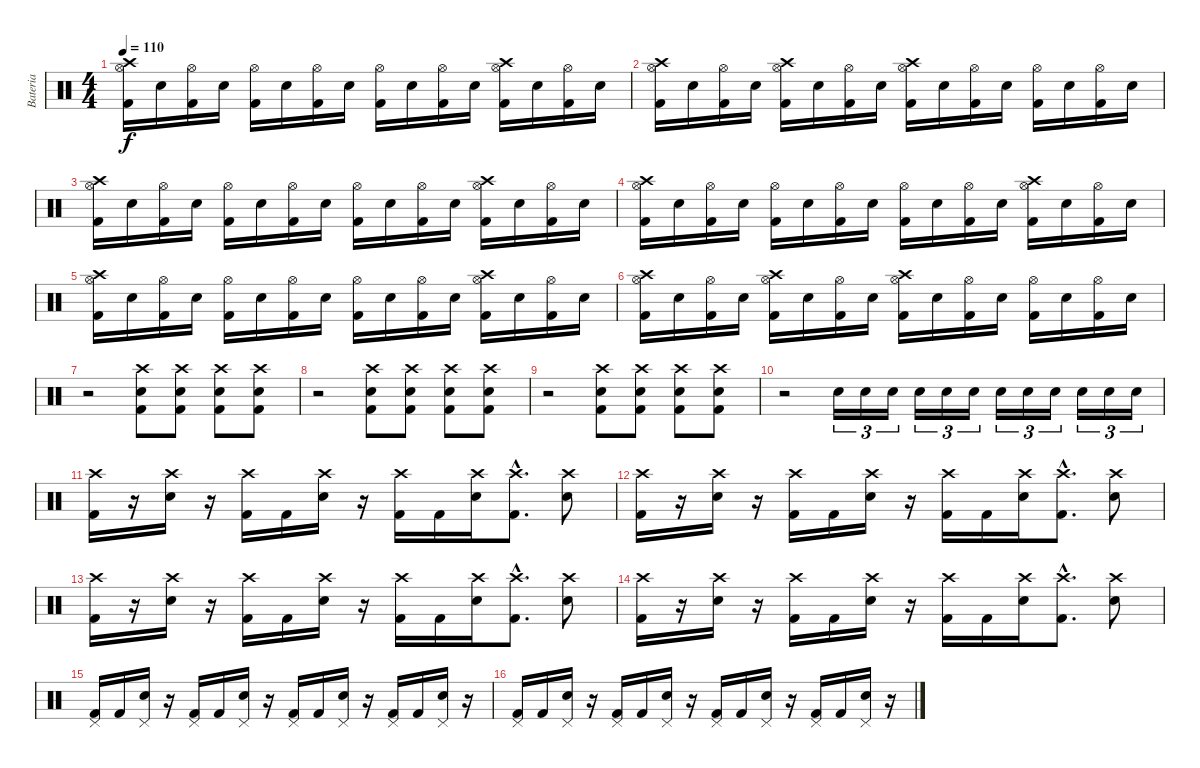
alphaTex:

\track ("Bateria" "Bateria") {instrument percussion}
\staff {score}
\articulation defaults
\ts (4 4)
\tempo 110
\clef neutral
\ks c
("Crash high (hit)" "Hi-Hat (open)" "Kick (hit) 2").16{dy f} "Electric Snare (hit)".16 ("Hi-Hat (open)" "Kick (hit) 2").16 "Electric Snare (hit)".16 ("Hi-Hat (open)" "Kick (hit) 2").16 "Electric Snare (hit)".16 ("Hi-Hat (open)" "Kick (hit) 2").16 "Electric Snare (hit)".16 ("Hi-Hat (open)" "Kick (hit) 2").16 "Electric Snare (hit)".16 ("Hi-Hat (open)" "Kick (hit) 2").16 "Electric Snare (hit)".16 ("Crash high (hit)" "Hi-Hat (open)" "Kick (hit) 2").16 "Electric Snare (hit)".16 ("Hi-Hat (open)" "Kick (hit) 2").16 "Electric Snare (hit)".16 |
("Crash high (hit)" "Hi-Hat (open)" "Kick (hit) 2").16 "Electric Snare (hit)".16 ("Hi-Hat (open)" "Kick (hit) 2").16 "Electric Snare (hit)".16 ("Crash high (hit)" "Hi-Hat (open)" "Kick (hit) 2").16 "Electric Snare (hit)".16 ("Hi-Hat (open)" "Kick (hit) 2").16 "Electric Snare (hit)".16 ("Crash high (hit)" "Hi-Hat (open)" "Kick (hit) 2").16 "Electric Snare (hit)".16 ("Hi-Hat (open)" "Kick (hit) 2").16 "Electric Snare (hit)".16 ("Hi-Hat (open)" "Kick (hit) 2").16 "Electric Snare (hit)".16 ("Hi-Hat (open)" "Kick (hit) 2").16 "Electric Snare (hit)".16 |
("Crash high (hit)" "Hi-Hat (open)" "Kick (hit) 2").16 "Electric Snare (hit)".16 ("Hi-Hat (open)" "Kick (hit) 2").16 "Electric Snare (hit)".16 ("Hi-Hat (open)" "Kick (hit) 2").16 "Electric Snare (hit)".16 ("Hi-Hat (open)" "Kick (hit) 2").16 "Electric Snare (hit)".16 ("Hi-Hat (open)" "Kick (hit) 2").16 "Electric Snare (hit)".16 ("Hi-Hat (open)" "Kick (hit) 2").16 "Electric Snare (hit)".16 ("Crash high (hit)" "Hi-Hat (open)" "Kick (hit) 2").16 "Electric Snare (hit)".16 ("Hi-Hat (open)" "Kick (hit) 2").16 "Electric Snare (hit)".16 |
("Crash high (hit)" "Hi-Hat (open)" "Kick (hit) 2").16 "Electric Snare (hit)".16 ("Hi-Hat (open)" "Kick (hit) 2").16 "Electric Snare (hit)".16 ("Hi-Hat (open)" "Kick (hit) 2").16 "Electric Snare (hit)".16 ("Hi-Hat (open)" "Kick (hit) 2").16 "Electric Snare (hit)".16 ("Hi-Hat (open)" "Kick (hit) 2").16 "Electric Snare (hit)".16 ("Hi-Hat (open)" "Kick (hit) 2").16 "Electric Snare (hit)".16 ("Crash high (hit)" "Hi-Hat (open)" "Kick (hit) 2").16 "Electric Snare (hit)".16 ("Hi-Hat (open)" "Kick (hit) 2").16 "Electric Snare (hit)".16 |
("Crash high (hit)" "Hi-Hat (open)" "Kick (hit) 2").16 "Electric Snare (hit)".16 ("Hi-Hat (open)" "Kick (hit) 2").16 "Electric Snare (hit)".16 ("Hi-Hat (open)" "Kick (hit) 2").16 "Electric Snare (hit)".16 ("Hi-Hat (open)" "Kick (hit) 2").16 "Electric Snare (hit)".16 ("Hi-Hat (open)" "Kick (hit) 2").16 "Electric Snare (hit)".16 ("Hi-Hat (open)" "Kick (hit) 2").16 "Electric Snare (hit)".16 ("Crash high (hit)" "Hi-Hat (open)" "Kick (hit) 2").16 "Electric Snare (hit)".16 ("Hi-Hat (open)" "Kick (hit) 2").16 "Electric Snare (hit)".16 |
("Crash high (hit)" "Hi-Hat (open)" "Kick (hit) 2").16 "Electric Snare (hit)".16 ("Hi-Hat (open)" "Kick (hit) 2").16 "Electric Snare (hit)".16 ("Crash high (hit)" "Hi-Hat (open)" "Kick (hit) 2").16 "Electric Snare (hit)".16 ("Hi-Hat (open)" "Kick (hit) 2").16 "Electric Snare (hit)".16 ("Crash high (hit)" "Hi-Hat (open)" "Kick (hit) 2").16 "Electric Snare (hit)".16 ("Hi-Hat (open)" "Kick (hit) 2").16 "Electric Snare (hit)".16 ("Hi-Hat (open)" "Kick (hit) 2").16 "Electric Snare (hit)".16 ("Hi-Hat (open)" "Kick (hit) 2").16 "Electric Snare (hit)".16 |
r.2 ("Crash high (hit)" "Electric Snare (hit)" "Kick (hit) 2").8 ("Crash high (hit)" "Electric Snare (hit)" "Kick (hit) 2").8 ("Crash high (hit)" "Electric Snare (hit)" "Kick (hit) 2").8 ("Crash high (hit)" "Electric Snare (hit)" "Kick (hit) 2").8 |
r.2 ("Crash high (hit)" "Electric Snare (hit)" "Kick (hit) 2").8 ("Crash high (hit)" "Electric Snare (hit)" "Kick (hit) 2").8 ("Crash high (hit)" "Electric Snare (hit)" "Kick (hit) 2").8 ("Crash high (hit)" "Electric Snare (hit)" "Kick (hit) 2").8 |
r.2 ("Crash high (hit)" "Electric Snare (hit)" "Kick (hit) 2").8 ("Crash high (hit)" "Electric Snare (hit)" "Kick (hit) 2").8 ("Crash high (hit)" "Electric Snare (hit)" "Kick (hit) 2").8 ("Crash high (hit)" "Electric Snare (hit)" "Kick (hit) 2").8 |
r.2 "Electric Snare (hit)".16{tu (3 2)} "Electric Snare (hit)".16{tu (3 2)} "Electric Snare (hit)".16{tu (3 2)} "Electric Snare (hit)".16{tu (3 2)} "Electric Snare (hit)".16{tu (3 2)} "Electric Snare (hit)".16{tu (3 2)} "Electric Snare (hit)".16{tu (3 2)} "Electric Snare (hit)".16{tu (3 2)} "Electric Snare (hit)".16{tu (3 2)} "Electric Snare (hit)".16{tu (3 2)} "Electric Snare (hit)".16{tu (3 2)} "Electric Snare (hit)".16{tu (3 2)} |
("Crash high (hit)" "Kick (hit) 2").16 r.16 ("Crash high (hit)" "Electric Snare (hit)").16 r.16 ("Crash high (hit)" "Kick (hit) 2").16 "Kick (hit) 2".16 ("Crash high (hit)" "Electric Snare (hit)").16 r.16 ("Crash high (hit)" "Kick (hit) 2").16 "Kick (hit) 2".16 ("Crash high (hit)" "Electric Snare (hit)").16 ("Crash high (hit)"{hac} "Kick (hit) 2"{hac}).8{d} ("Crash high (hit)" "Electric Snare (hit)").8 |
("Crash high (hit)" "Kick (hit) 2").16 r.16 ("Crash high (hit)" "Electric Snare (hit)").16 r.16 ("Crash high (hit)" "Kick (hit) 2").16 "Kick (hit) 2".16 ("Crash high (hit)" "Electric Snare (hit)").16 r.16 ("Crash high (hit)" "Kick (hit) 2").16 "Kick (hit) 2".16 ("Crash high (hit)" "Electric Snare (hit)").16 ("Crash high (hit)"{hac} "Kick (hit) 2"{hac}).8{d} ("Crash high (hit)" "Electric Snare (hit)").8 |
("Crash high (hit)" "Kick (hit) 2").16 r.16 ("Crash high (hit)" "Electric Snare (hit)").16 r.16 ("Crash high (hit)" "Kick (hit) 2").16 "Kick (hit) 2".16 ("Crash high (hit)" "Electric Snare (hit)").16 r.16 ("Crash high (hit)" "Kick (hit) 2").16 "Kick (hit) 2".16 ("Crash high (hit)" "Electric Snare (hit)").16 ("Crash high (hit)"{hac} "Kick (hit) 2"{hac}).8{d} ("Crash high (hit)" "Electric Snare (hit)").8 |
("Crash high (hit)" "Kick (hit) 2").16 r.16 ("Crash high (hit)" "Electric Snare (hit)").16 r.16 ("Crash high (hit)" "Kick (hit) 2").16 "Kick (hit) 2".16 ("Crash high (hit)" "Electric Snare (hit)").16 r.16 ("Crash high (hit)" "Kick (hit) 2").16 "Kick (hit) 2".16 ("Crash high (hit)" "Electric Snare (hit)").16 ("Crash high (hit)"{hac} "Kick (hit) 2"{hac}).8{d} ("Crash high (hit)" "Electric Snare (hit)").8 |
("Pedal Hi-Hat (hit)" "Kick (hit) 2").16 "Kick (hit) 2".16 ("Pedal Hi-Hat (hit)" "Electric Snare (hit)").16 r.16 ("Pedal Hi-Hat (hit)" "Kick (hit) 2").16 "Kick (hit) 2".16 ("Pedal Hi-Hat (hit)" "Electric Snare (hit)").16 r.16 ("Pedal Hi-Hat (hit)" "Kick (hit) 2").16 "Kick (hit) 2".16 ("Pedal Hi-Hat (hit)" "Electric Snare (hit)").16 r.16 ("Pedal Hi-Hat (hit)" "Kick (hit) 2").16 "Kick (hit) 2".16 ("Pedal Hi-Hat (hit)" "Electric Snare (hit)").16 r.16 |
("Pedal Hi-Hat (hit)" "Kick (hit) 2").16 "Kick (hit) 2".16 ("Pedal Hi-Hat (hit)" "Electric Snare (hit)").16 r.16 ("Pedal Hi-Hat (hit)" "Kick (hit) 2").16 "Kick (hit) 2".16 ("Pedal Hi-Hat (hit)" "Electric Snare (hit)").16 r.16 ("Pedal Hi-Hat (hit)" "Kick (hit) 2").16 "Kick (hit) 2".16 ("Pedal Hi-Hat (hit)" "Electric Snare (hit)").16 r.16 ("Pedal Hi-Hat (hit)" "Kick (hit) 2").16 "Kick (hit) 2".16 ("Pedal Hi-Hat (hit)" "Electric Snare (hit)").16 r.16
